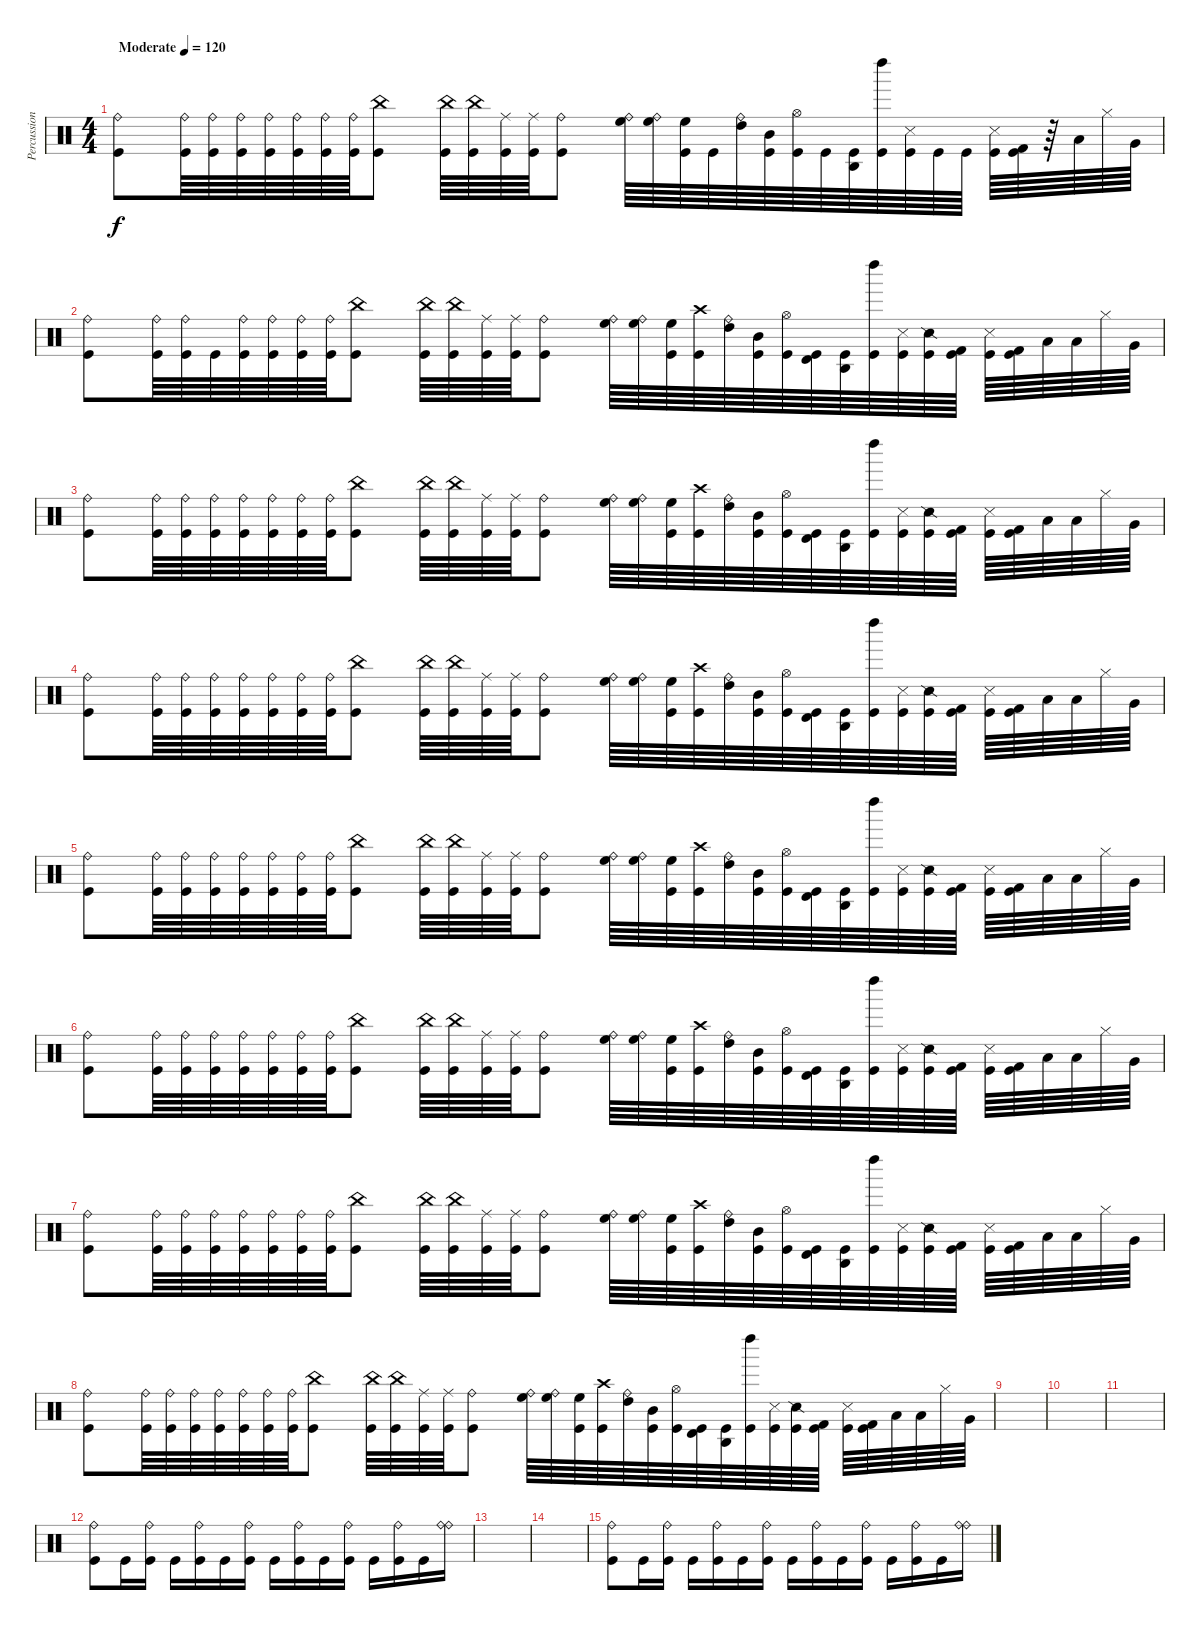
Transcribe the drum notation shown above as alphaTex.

\track ("Percussions" "Percussion") {instrument percussion}
\staff {score}
\articulation defaults
\ts (4 4)
\tempo (120 "Moderate")
\clef neutral
\ks c
("Ride (bell)" "Kick (hit)").8{dy f} ("Ride (bell)" "Kick (hit)").64 ("Ride (bell)" "Kick (hit)").64 ("Ride (bell)" "Kick (hit)").64 ("Ride (bell)" "Kick (hit)").64 ("Ride (bell)" "Kick (hit)").64 ("Ride (bell)" "Kick (hit)").64 ("Ride (bell)" "Kick (hit)").64 ("China (hit)" "Kick (hit)").8 ("China (hit)" "Kick (hit)").64 ("China (hit)" "Kick (hit)").64 ("Ride (middle)" "Kick (hit)").64 ("Ride (middle)" "Kick (hit)").64 ("Ride (bell)" "Kick (hit)").8 ("High Floor Tom (hit)" "Ride (bell)").64 ("High Floor Tom (hit)" "Ride (bell)").64 ("High Floor Tom (hit)" "Kick (hit)").64 "Kick (hit)".64 ("High Tom (hit)" "Ride (bell)").64 ("Mid Tom (hit)" "Kick (hit)").64 ("Hi-Hat (open)" "Kick (hit)").64 "Kick (hit)".64 ("Agogo high (hit)" "Kick (hit)").64 ("Left Maraca (hit)" "Kick (hit)").64 ("Metronome (hit)" "Kick (hit)").64 "Kick (hit)".64 "Kick (hit)".64 ("Snare (side stick) 3" "Kick (hit)").64 ("Kick (hit) 2" "Kick (hit)").64 r.64 "Low Floor Tom (hit)".64 "Hi-Hat (closed)".64 "Very Low Tom (hit)".64 |
("Ride (bell)" "Kick (hit)").8 ("Ride (bell)" "Kick (hit)").64 ("Ride (bell)" "Kick (hit)").64 "Kick (hit)".64 ("Ride (bell)" "Kick (hit)").64 ("Ride (bell)" "Kick (hit)").64 ("Ride (bell)" "Kick (hit)").64 ("Ride (bell)" "Kick (hit)").64 ("China (hit)" "Kick (hit)").8 ("China (hit)" "Kick (hit)").64 ("China (hit)" "Kick (hit)").64 ("Ride (middle)" "Kick (hit)").64 ("Ride (middle)" "Kick (hit)").64 ("Ride (bell)" "Kick (hit)").8 ("High Floor Tom (hit)" "Ride (bell)").64 ("High Floor Tom (hit)" "Ride (bell)").64 ("High Floor Tom (hit)" "Kick (hit)").64 ("Crash high (hit)" "Kick (hit)").64 ("High Tom (hit)" "Ride (bell)").64 ("Mid Tom (hit)" "Kick (hit)").64 ("Hi-Hat (open)" "Kick (hit)").64 ("Timbale high (hit)" "Kick (hit)").64 ("Agogo high (hit)" "Kick (hit)").64 ("Left Maraca (hit)" "Kick (hit)").64 ("Metronome (hit)" "Kick (hit)").64 ("Snare (side stick) 2" "Kick (hit)").64 ("Kick (hit) 2" "Kick (hit)").64 ("Snare (side stick) 3" "Kick (hit)").64 ("Kick (hit) 2" "Kick (hit)").64 "Low Floor Tom (hit)".64 "Low Floor Tom (hit)".64 "Hi-Hat (closed)".64 "Very Low Tom (hit)".64 |
("Ride (bell)" "Kick (hit)").8 ("Ride (bell)" "Kick (hit)").64 ("Ride (bell)" "Kick (hit)").64 ("Ride (bell)" "Kick (hit)").64 ("Ride (bell)" "Kick (hit)").64 ("Ride (bell)" "Kick (hit)").64 ("Ride (bell)" "Kick (hit)").64 ("Ride (bell)" "Kick (hit)").64 ("China (hit)" "Kick (hit)").8 ("China (hit)" "Kick (hit)").64 ("China (hit)" "Kick (hit)").64 ("Ride (middle)" "Kick (hit)").64 ("Ride (middle)" "Kick (hit)").64 ("Ride (bell)" "Kick (hit)").8 ("High Floor Tom (hit)" "Ride (bell)").64 ("High Floor Tom (hit)" "Ride (bell)").64 ("High Floor Tom (hit)" "Kick (hit)").64 ("Crash high (hit)" "Kick (hit)").64 ("High Tom (hit)" "Ride (bell)").64 ("Mid Tom (hit)" "Kick (hit)").64 ("Hi-Hat (open)" "Kick (hit)").64 ("Timbale high (hit)" "Kick (hit)").64 ("Agogo high (hit)" "Kick (hit)").64 ("Left Maraca (hit)" "Kick (hit)").64 ("Metronome (hit)" "Kick (hit)").64 ("Snare (side stick) 2" "Kick (hit)").64 ("Kick (hit) 2" "Kick (hit)").64 ("Snare (side stick) 3" "Kick (hit)").64 ("Kick (hit) 2" "Kick (hit)").64 "Low Floor Tom (hit)".64 "Low Floor Tom (hit)".64 "Hi-Hat (closed)".64 "Very Low Tom (hit)".64 |
("Ride (bell)" "Kick (hit)").8 ("Ride (bell)" "Kick (hit)").64 ("Ride (bell)" "Kick (hit)").64 ("Ride (bell)" "Kick (hit)").64 ("Ride (bell)" "Kick (hit)").64 ("Ride (bell)" "Kick (hit)").64 ("Ride (bell)" "Kick (hit)").64 ("Ride (bell)" "Kick (hit)").64 ("China (hit)" "Kick (hit)").8 ("China (hit)" "Kick (hit)").64 ("China (hit)" "Kick (hit)").64 ("Ride (middle)" "Kick (hit)").64 ("Ride (middle)" "Kick (hit)").64 ("Ride (bell)" "Kick (hit)").8 ("High Floor Tom (hit)" "Ride (bell)").64 ("High Floor Tom (hit)" "Ride (bell)").64 ("High Floor Tom (hit)" "Kick (hit)").64 ("Crash high (hit)" "Kick (hit)").64 ("High Tom (hit)" "Ride (bell)").64 ("Mid Tom (hit)" "Kick (hit)").64 ("Hi-Hat (open)" "Kick (hit)").64 ("Timbale high (hit)" "Kick (hit)").64 ("Agogo high (hit)" "Kick (hit)").64 ("Left Maraca (hit)" "Kick (hit)").64 ("Metronome (hit)" "Kick (hit)").64 ("Snare (side stick) 2" "Kick (hit)").64 ("Kick (hit) 2" "Kick (hit)").64 ("Snare (side stick) 3" "Kick (hit)").64 ("Kick (hit) 2" "Kick (hit)").64 "Low Floor Tom (hit)".64 "Low Floor Tom (hit)".64 "Hi-Hat (closed)".64 "Very Low Tom (hit)".64 |
("Ride (bell)" "Kick (hit)").8 ("Ride (bell)" "Kick (hit)").64 ("Ride (bell)" "Kick (hit)").64 ("Ride (bell)" "Kick (hit)").64 ("Ride (bell)" "Kick (hit)").64 ("Ride (bell)" "Kick (hit)").64 ("Ride (bell)" "Kick (hit)").64 ("Ride (bell)" "Kick (hit)").64 ("China (hit)" "Kick (hit)").8 ("China (hit)" "Kick (hit)").64 ("China (hit)" "Kick (hit)").64 ("Ride (middle)" "Kick (hit)").64 ("Ride (middle)" "Kick (hit)").64 ("Ride (bell)" "Kick (hit)").8 ("High Floor Tom (hit)" "Ride (bell)").64 ("High Floor Tom (hit)" "Ride (bell)").64 ("High Floor Tom (hit)" "Kick (hit)").64 ("Crash high (hit)" "Kick (hit)").64 ("High Tom (hit)" "Ride (bell)").64 ("Mid Tom (hit)" "Kick (hit)").64 ("Hi-Hat (open)" "Kick (hit)").64 ("Timbale high (hit)" "Kick (hit)").64 ("Agogo high (hit)" "Kick (hit)").64 ("Left Maraca (hit)" "Kick (hit)").64 ("Metronome (hit)" "Kick (hit)").64 ("Snare (side stick) 2" "Kick (hit)").64 ("Kick (hit) 2" "Kick (hit)").64 ("Snare (side stick) 3" "Kick (hit)").64 ("Kick (hit) 2" "Kick (hit)").64 "Low Floor Tom (hit)".64 "Low Floor Tom (hit)".64 "Hi-Hat (closed)".64 "Very Low Tom (hit)".64 |
("Ride (bell)" "Kick (hit)").8 ("Ride (bell)" "Kick (hit)").64 ("Ride (bell)" "Kick (hit)").64 ("Ride (bell)" "Kick (hit)").64 ("Ride (bell)" "Kick (hit)").64 ("Ride (bell)" "Kick (hit)").64 ("Ride (bell)" "Kick (hit)").64 ("Ride (bell)" "Kick (hit)").64 ("China (hit)" "Kick (hit)").8 ("China (hit)" "Kick (hit)").64 ("China (hit)" "Kick (hit)").64 ("Ride (middle)" "Kick (hit)").64 ("Ride (middle)" "Kick (hit)").64 ("Ride (bell)" "Kick (hit)").8 ("High Floor Tom (hit)" "Ride (bell)").64 ("High Floor Tom (hit)" "Ride (bell)").64 ("High Floor Tom (hit)" "Kick (hit)").64 ("Crash high (hit)" "Kick (hit)").64 ("High Tom (hit)" "Ride (bell)").64 ("Mid Tom (hit)" "Kick (hit)").64 ("Hi-Hat (open)" "Kick (hit)").64 ("Timbale high (hit)" "Kick (hit)").64 ("Agogo high (hit)" "Kick (hit)").64 ("Left Maraca (hit)" "Kick (hit)").64 ("Metronome (hit)" "Kick (hit)").64 ("Snare (side stick) 2" "Kick (hit)").64 ("Kick (hit) 2" "Kick (hit)").64 ("Snare (side stick) 3" "Kick (hit)").64 ("Kick (hit) 2" "Kick (hit)").64 "Low Floor Tom (hit)".64 "Low Floor Tom (hit)".64 "Hi-Hat (closed)".64 "Very Low Tom (hit)".64 |
("Ride (bell)" "Kick (hit)").8 ("Ride (bell)" "Kick (hit)").64 ("Ride (bell)" "Kick (hit)").64 ("Ride (bell)" "Kick (hit)").64 ("Ride (bell)" "Kick (hit)").64 ("Ride (bell)" "Kick (hit)").64 ("Ride (bell)" "Kick (hit)").64 ("Ride (bell)" "Kick (hit)").64 ("China (hit)" "Kick (hit)").8 ("China (hit)" "Kick (hit)").64 ("China (hit)" "Kick (hit)").64 ("Ride (middle)" "Kick (hit)").64 ("Ride (middle)" "Kick (hit)").64 ("Ride (bell)" "Kick (hit)").8 ("High Floor Tom (hit)" "Ride (bell)").64 ("High Floor Tom (hit)" "Ride (bell)").64 ("High Floor Tom (hit)" "Kick (hit)").64 ("Crash high (hit)" "Kick (hit)").64 ("High Tom (hit)" "Ride (bell)").64 ("Mid Tom (hit)" "Kick (hit)").64 ("Hi-Hat (open)" "Kick (hit)").64 ("Timbale high (hit)" "Kick (hit)").64 ("Agogo high (hit)" "Kick (hit)").64 ("Left Maraca (hit)" "Kick (hit)").64 ("Metronome (hit)" "Kick (hit)").64 ("Snare (side stick) 2" "Kick (hit)").64 ("Kick (hit) 2" "Kick (hit)").64 ("Snare (side stick) 3" "Kick (hit)").64 ("Kick (hit) 2" "Kick (hit)").64 "Low Floor Tom (hit)".64 "Low Floor Tom (hit)".64 "Hi-Hat (closed)".64 "Very Low Tom (hit)".64 |
("Ride (bell)" "Kick (hit)").8 ("Ride (bell)" "Kick (hit)").64 ("Ride (bell)" "Kick (hit)").64 ("Ride (bell)" "Kick (hit)").64 ("Ride (bell)" "Kick (hit)").64 ("Ride (bell)" "Kick (hit)").64 ("Ride (bell)" "Kick (hit)").64 ("Ride (bell)" "Kick (hit)").64 ("China (hit)" "Kick (hit)").8 ("China (hit)" "Kick (hit)").64 ("China (hit)" "Kick (hit)").64 ("Ride (middle)" "Kick (hit)").64 ("Ride (middle)" "Kick (hit)").64 ("Ride (bell)" "Kick (hit)").8 ("High Floor Tom (hit)" "Ride (bell)").64 ("High Floor Tom (hit)" "Ride (bell)").64 ("High Floor Tom (hit)" "Kick (hit)").64 ("Crash high (hit)" "Kick (hit)").64 ("High Tom (hit)" "Ride (bell)").64 ("Mid Tom (hit)" "Kick (hit)").64 ("Hi-Hat (open)" "Kick (hit)").64 ("Timbale high (hit)" "Kick (hit)").64 ("Agogo high (hit)" "Kick (hit)").64 ("Left Maraca (hit)" "Kick (hit)").64 ("Metronome (hit)" "Kick (hit)").64 ("Snare (side stick) 2" "Kick (hit)").64 ("Kick (hit) 2" "Kick (hit)").64 ("Snare (side stick) 3" "Kick (hit)").64 ("Kick (hit) 2" "Kick (hit)").64 "Low Floor Tom (hit)".64 "Low Floor Tom (hit)".64 "Hi-Hat (closed)".64 "Very Low Tom (hit)".64 |
|
|
|
("Ride (bell)" "Kick (hit)").8 "Kick (hit)".16 ("Ride (bell)" "Kick (hit)").16 "Kick (hit)".16 ("Ride (bell)" "Kick (hit)").16 "Kick (hit)".16 ("Ride (bell)" "Kick (hit)").16 "Kick (hit)".16 ("Ride (bell)" "Kick (hit)").16 "Kick (hit)".16 ("Ride (bell)" "Kick (hit)").16 "Kick (hit)".16 ("Ride (bell)" "Kick (hit)").16 "Kick (hit)".16 ("Ride (bell)" "Ride (bell)").16 |
|
|
("Ride (bell)" "Kick (hit)").8 "Kick (hit)".16 ("Ride (bell)" "Kick (hit)").16 "Kick (hit)".16 ("Ride (bell)" "Kick (hit)").16 "Kick (hit)".16 ("Ride (bell)" "Kick (hit)").16 "Kick (hit)".16 ("Ride (bell)" "Kick (hit)").16 "Kick (hit)".16 ("Ride (bell)" "Kick (hit)").16 "Kick (hit)".16 ("Ride (bell)" "Kick (hit)").16 "Kick (hit)".16 ("Ride (bell)" "Ride (bell)").16
